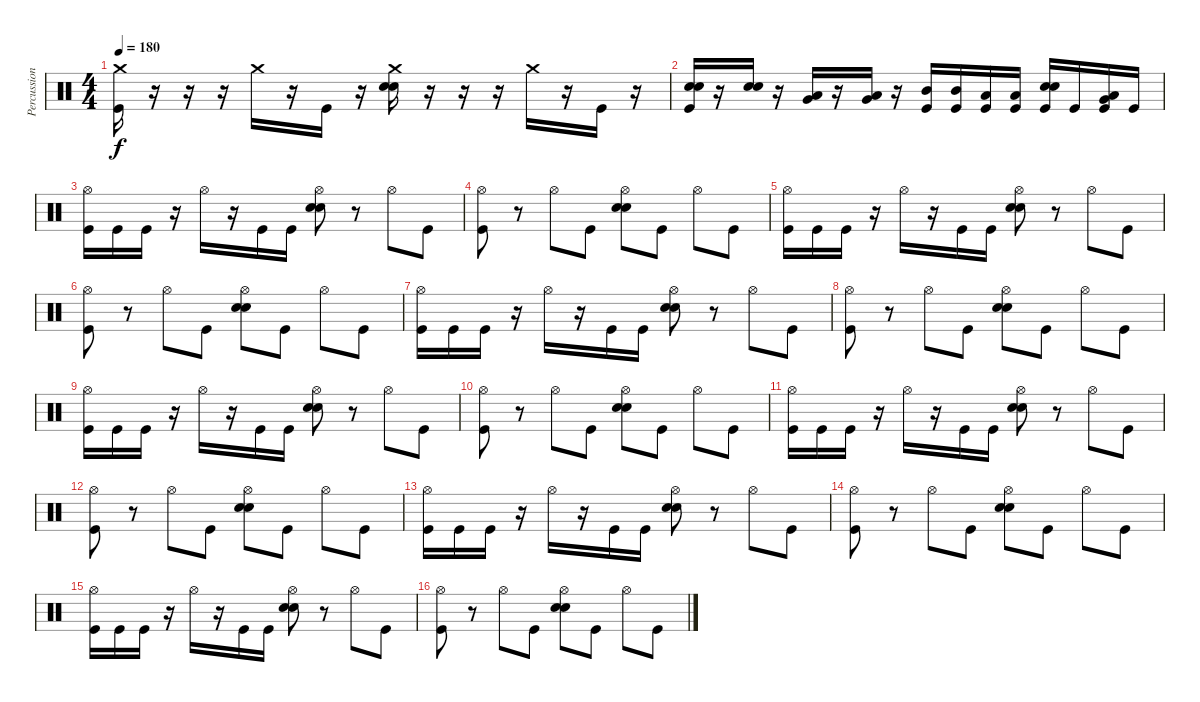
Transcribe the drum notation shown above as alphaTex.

\track ("Percussion" "Percussion") {instrument percussion}
\staff {score}
\articulation defaults
\ts (4 4)
\tempo 180
\clef neutral
\ks c
("Crash medium (hit)" "Kick (hit)").16{dy f} r.16 r.16 r.16 "Crash medium (hit)".16 r.16 "Kick (hit)".16 r.16 ("Crash medium (hit)" "Snare (hit) 2" "Electric Snare (hit)").16 r.16 r.16 r.16 "Crash medium (hit)".16 r.16 "Kick (hit)".16 r.16 |
("Snare (hit) 2" "Electric Snare (hit)" "Kick (hit)").16 r.16 ("Snare (hit) 2" "Electric Snare (hit)").16 r.16 ("Low Tom (hit)" "Very Low Tom (hit)").16 r.16 ("Very Low Tom (hit)" "Low Floor Tom (hit)").16 r.16 ("Mid Tom (hit)" "Kick (hit)").16 ("Mid Tom (hit)" "Kick (hit)").16 ("Low Tom (hit)" "Kick (hit)").16 ("Low Tom (hit)" "Kick (hit)").16 ("Snare (hit) 2" "Electric Snare (hit)" "Kick (hit)").16 "Kick (hit)".16 ("Very Low Tom (hit)" "Low Floor Tom (hit)" "Kick (hit)").16 "Kick (hit)".16 |
("Hi-Hat (open)" "Kick (hit)").16 "Kick (hit)".16 "Kick (hit)".16 r.16 "Hi-Hat (open)".16 r.16 "Kick (hit)".16 "Kick (hit)".16 ("Hi-Hat (open)" "Snare (hit) 2" "Electric Snare (hit)").8 r.8 "Hi-Hat (open)".8 "Kick (hit)".8 |
("Hi-Hat (open)" "Kick (hit)").8 r.8 "Hi-Hat (open)".8 "Kick (hit)".8 ("Hi-Hat (open)" "Snare (hit) 2" "Electric Snare (hit)").8 "Kick (hit)".8 "Hi-Hat (open)".8 "Kick (hit)".8 |
("Hi-Hat (open)" "Kick (hit)").16 "Kick (hit)".16 "Kick (hit)".16 r.16 "Hi-Hat (open)".16 r.16 "Kick (hit)".16 "Kick (hit)".16 ("Hi-Hat (open)" "Snare (hit) 2" "Electric Snare (hit)").8 r.8 "Hi-Hat (open)".8 "Kick (hit)".8 |
("Hi-Hat (open)" "Kick (hit)").8 r.8 "Hi-Hat (open)".8 "Kick (hit)".8 ("Hi-Hat (open)" "Snare (hit) 2" "Electric Snare (hit)").8 "Kick (hit)".8 "Hi-Hat (open)".8 "Kick (hit)".8 |
("Hi-Hat (open)" "Kick (hit)").16 "Kick (hit)".16 "Kick (hit)".16 r.16 "Hi-Hat (open)".16 r.16 "Kick (hit)".16 "Kick (hit)".16 ("Hi-Hat (open)" "Snare (hit) 2" "Electric Snare (hit)").8 r.8 "Hi-Hat (open)".8 "Kick (hit)".8 |
("Hi-Hat (open)" "Kick (hit)").8 r.8 "Hi-Hat (open)".8 "Kick (hit)".8 ("Hi-Hat (open)" "Snare (hit) 2" "Electric Snare (hit)").8 "Kick (hit)".8 "Hi-Hat (open)".8 "Kick (hit)".8 |
("Hi-Hat (open)" "Kick (hit)").16 "Kick (hit)".16 "Kick (hit)".16 r.16 "Hi-Hat (open)".16 r.16 "Kick (hit)".16 "Kick (hit)".16 ("Hi-Hat (open)" "Snare (hit) 2" "Electric Snare (hit)").8 r.8 "Hi-Hat (open)".8 "Kick (hit)".8 |
("Hi-Hat (open)" "Kick (hit)").8 r.8 "Hi-Hat (open)".8 "Kick (hit)".8 ("Hi-Hat (open)" "Snare (hit) 2" "Electric Snare (hit)").8 "Kick (hit)".8 "Hi-Hat (open)".8 "Kick (hit)".8 |
("Hi-Hat (open)" "Kick (hit)").16 "Kick (hit)".16 "Kick (hit)".16 r.16 "Hi-Hat (open)".16 r.16 "Kick (hit)".16 "Kick (hit)".16 ("Hi-Hat (open)" "Snare (hit) 2" "Electric Snare (hit)").8 r.8 "Hi-Hat (open)".8 "Kick (hit)".8 |
("Hi-Hat (open)" "Kick (hit)").8 r.8 "Hi-Hat (open)".8 "Kick (hit)".8 ("Hi-Hat (open)" "Snare (hit) 2" "Electric Snare (hit)").8 "Kick (hit)".8 "Hi-Hat (open)".8 "Kick (hit)".8 |
("Hi-Hat (open)" "Kick (hit)").16 "Kick (hit)".16 "Kick (hit)".16 r.16 "Hi-Hat (open)".16 r.16 "Kick (hit)".16 "Kick (hit)".16 ("Hi-Hat (open)" "Snare (hit) 2" "Electric Snare (hit)").8 r.8 "Hi-Hat (open)".8 "Kick (hit)".8 |
("Hi-Hat (open)" "Kick (hit)").8 r.8 "Hi-Hat (open)".8 "Kick (hit)".8 ("Hi-Hat (open)" "Snare (hit) 2" "Electric Snare (hit)").8 "Kick (hit)".8 "Hi-Hat (open)".8 "Kick (hit)".8 |
("Hi-Hat (open)" "Kick (hit)").16 "Kick (hit)".16 "Kick (hit)".16 r.16 "Hi-Hat (open)".16 r.16 "Kick (hit)".16 "Kick (hit)".16 ("Hi-Hat (open)" "Snare (hit) 2" "Electric Snare (hit)").8 r.8 "Hi-Hat (open)".8 "Kick (hit)".8 |
("Hi-Hat (open)" "Kick (hit)").8 r.8 "Hi-Hat (open)".8 "Kick (hit)".8 ("Hi-Hat (open)" "Snare (hit) 2" "Electric Snare (hit)").8 "Kick (hit)".8 "Hi-Hat (open)".8 "Kick (hit)".8
